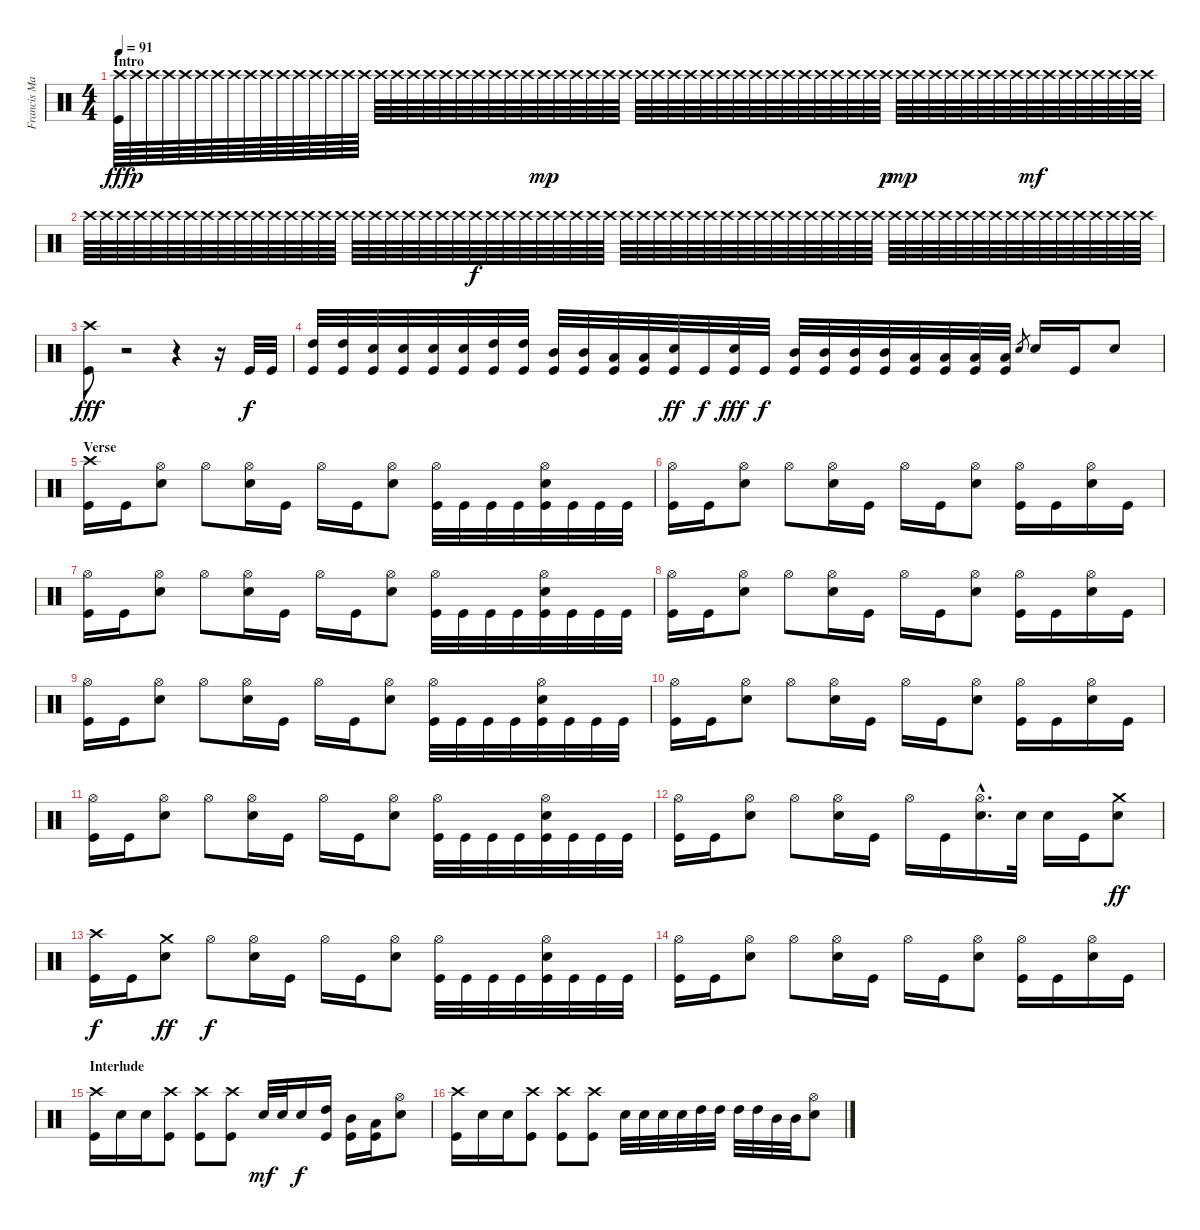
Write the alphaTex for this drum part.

\track ("Francis Mark" "Francis Ma") {instrument percussion}
\staff {score}
\articulation defaults
\ts (4 4)
\section ("" "Intro")
\tempo 91
\clef neutral
\ks c
("Crash high (hit)" "Kick (hit)").64{dy fff} "Crash high (hit)".64{dy p} "Crash high (hit)".64 "Crash high (hit)".64 "Crash high (hit)".64 "Crash high (hit)".64 "Crash high (hit)".64 "Crash high (hit)".64 "Crash high (hit)".64 "Crash high (hit)".64 "Crash high (hit)".64 "Crash high (hit)".64 "Crash high (hit)".64 "Crash high (hit)".64 "Crash high (hit)".64 "Crash high (hit)".64 "Crash high (hit)".64 "Crash high (hit)".64 "Crash high (hit)".64 "Crash high (hit)".64 "Crash high (hit)".64 "Crash high (hit)".64 "Crash high (hit)".64 "Crash high (hit)".64 "Crash high (hit)".64 "Crash high (hit)".64 "Crash high (hit)".64{dy mp} "Crash high (hit)".64 "Crash high (hit)".64 "Crash high (hit)".64 "Crash high (hit)".64 "Crash high (hit)".64 "Crash high (hit)".64 "Crash high (hit)".64 "Crash high (hit)".64 "Crash high (hit)".64 "Crash high (hit)".64 "Crash high (hit)".64 "Crash high (hit)".64 "Crash high (hit)".64 "Crash high (hit)".64 "Crash high (hit)".64 "Crash high (hit)".64 "Crash high (hit)".64 "Crash high (hit)".64 "Crash high (hit)".64 "Crash high (hit)".64 "Crash high (hit)".64{dy p} "Crash high (hit)".64{dy mp} "Crash high (hit)".64 "Crash high (hit)".64 "Crash high (hit)".64 "Crash high (hit)".64 "Crash high (hit)".64 "Crash high (hit)".64 "Crash high (hit)".64 "Crash high (hit)".64{dy mf} "Crash high (hit)".64 "Crash high (hit)".64 "Crash high (hit)".64 "Crash high (hit)".64 "Crash high (hit)".64 "Crash high (hit)".64 "Crash high (hit)".64 |
"Crash high (hit)".64 "Crash high (hit)".64 "Crash high (hit)".64 "Crash high (hit)".64 "Crash high (hit)".64 "Crash high (hit)".64 "Crash high (hit)".64 "Crash high (hit)".64 "Crash high (hit)".64 "Crash high (hit)".64 "Crash high (hit)".64 "Crash high (hit)".64 "Crash high (hit)".64 "Crash high (hit)".64 "Crash high (hit)".64 "Crash high (hit)".64 "Crash high (hit)".64 "Crash high (hit)".64 "Crash high (hit)".64 "Crash high (hit)".64 "Crash high (hit)".64 "Crash high (hit)".64 "Crash high (hit)".64 "Crash high (hit)".64{dy f} "Crash high (hit)".64 "Crash high (hit)".64 "Crash high (hit)".64 "Crash high (hit)".64 "Crash high (hit)".64 "Crash high (hit)".64 "Crash high (hit)".64 "Crash high (hit)".64 "Crash high (hit)".64 "Crash high (hit)".64 "Crash high (hit)".64 "Crash high (hit)".64 "Crash high (hit)".64 "Crash high (hit)".64 "Crash high (hit)".64 "Crash high (hit)".64 "Crash high (hit)".64 "Crash high (hit)".64 "Crash high (hit)".64 "Crash high (hit)".64 "Crash high (hit)".64 "Crash high (hit)".64 "Crash high (hit)".64 "Crash high (hit)".64 "Crash high (hit)".64 "Crash high (hit)".64 "Crash high (hit)".64 "Crash high (hit)".64 "Crash high (hit)".64 "Crash high (hit)".64 "Crash high (hit)".64 "Crash high (hit)".64 "Crash high (hit)".64 "Crash high (hit)".64 "Crash high (hit)".64 "Crash high (hit)".64 "Crash high (hit)".64 "Crash high (hit)".64 "Crash high (hit)".64 "Crash high (hit)".64 |
("Crash high (hit)" "Kick (hit)").8{dy fff} r.2{volume 0} r.4{volume 13} r.16 "Kick (hit)".32{dy f} "Kick (hit)".32 |
("High Tom (hit)" "Kick (hit)").32 ("High Tom (hit)" "Kick (hit)").32 ("Electric Snare (hit)" "Kick (hit)").32 ("Electric Snare (hit)" "Kick (hit)").32 ("Electric Snare (hit)" "Kick (hit)").32 ("Electric Snare (hit)" "Kick (hit)").32 ("High Tom (hit)" "Kick (hit)").32 ("High Tom (hit)" "Kick (hit)").32 ("Mid Tom (hit)" "Kick (hit)").32 ("Mid Tom (hit)" "Kick (hit)").32 ("Low Tom (hit)" "Kick (hit)").32 ("Low Tom (hit)" "Kick (hit)").32 ("Electric Snare (hit)" "Kick (hit)").32{dy ff} "Kick (hit)".32{dy f} ("Electric Snare (hit)" "Kick (hit)").32{dy fff} "Kick (hit)".32{dy f} ("Mid Tom (hit)" "Kick (hit)").32 ("Mid Tom (hit)" "Kick (hit)").32 ("Mid Tom (hit)" "Kick (hit)").32 ("Mid Tom (hit)" "Kick (hit)").32 ("Low Tom (hit)" "Kick (hit)").32 ("Low Tom (hit)" "Kick (hit)").32 ("Low Tom (hit)" "Kick (hit)").32 ("Low Tom (hit)" "Kick (hit)").32 "Electric Snare (hit)".8{gr} "Electric Snare (hit)".16 "Kick (hit)".16 "Electric Snare (hit)".8 |
\section ("" "Verse")
("Crash high (hit)" "Kick (hit)").16 "Kick (hit)".16 ("Hi-Hat (open)" "Electric Snare (hit)").8 "Hi-Hat (open)".8 ("Hi-Hat (open)" "Electric Snare (hit)").16 "Kick (hit)".16 "Hi-Hat (open)".16 "Kick (hit)".16 ("Hi-Hat (open)" "Electric Snare (hit)").8 ("Hi-Hat (open)" "Kick (hit)").32 "Kick (hit)".32 "Kick (hit)".32 "Kick (hit)".32 ("Hi-Hat (open)" "Electric Snare (hit)" "Kick (hit)").32 "Kick (hit)".32 "Kick (hit)".32 "Kick (hit)".32 |
("Hi-Hat (open)" "Kick (hit)").16 "Kick (hit)".16 ("Hi-Hat (open)" "Electric Snare (hit)").8 "Hi-Hat (open)".8 ("Hi-Hat (open)" "Electric Snare (hit)").16 "Kick (hit)".16 "Hi-Hat (open)".16 "Kick (hit)".16 ("Hi-Hat (open)" "Electric Snare (hit)").8 ("Hi-Hat (open)" "Kick (hit)").16 "Kick (hit)".16 ("Hi-Hat (open)" "Electric Snare (hit)").16 "Kick (hit)".16 |
("Hi-Hat (open)" "Kick (hit)").16 "Kick (hit)".16 ("Hi-Hat (open)" "Electric Snare (hit)").8 "Hi-Hat (open)".8 ("Hi-Hat (open)" "Electric Snare (hit)").16 "Kick (hit)".16 "Hi-Hat (open)".16 "Kick (hit)".16 ("Hi-Hat (open)" "Electric Snare (hit)").8 ("Hi-Hat (open)" "Kick (hit)").32 "Kick (hit)".32 "Kick (hit)".32 "Kick (hit)".32 ("Hi-Hat (open)" "Electric Snare (hit)" "Kick (hit)").32 "Kick (hit)".32 "Kick (hit)".32 "Kick (hit)".32 |
("Hi-Hat (open)" "Kick (hit)").16 "Kick (hit)".16 ("Hi-Hat (open)" "Electric Snare (hit)").8 "Hi-Hat (open)".8 ("Hi-Hat (open)" "Electric Snare (hit)").16 "Kick (hit)".16 "Hi-Hat (open)".16 "Kick (hit)".16 ("Hi-Hat (open)" "Electric Snare (hit)").8 ("Hi-Hat (open)" "Kick (hit)").16 "Kick (hit)".16 ("Hi-Hat (open)" "Electric Snare (hit)").16 "Kick (hit)".16 |
("Hi-Hat (open)" "Kick (hit)").16 "Kick (hit)".16 ("Hi-Hat (open)" "Electric Snare (hit)").8 "Hi-Hat (open)".8 ("Hi-Hat (open)" "Electric Snare (hit)").16 "Kick (hit)".16 "Hi-Hat (open)".16 "Kick (hit)".16 ("Hi-Hat (open)" "Electric Snare (hit)").8 ("Hi-Hat (open)" "Kick (hit)").32 "Kick (hit)".32 "Kick (hit)".32 "Kick (hit)".32 ("Hi-Hat (open)" "Electric Snare (hit)" "Kick (hit)").32 "Kick (hit)".32 "Kick (hit)".32 "Kick (hit)".32 |
("Hi-Hat (open)" "Kick (hit)").16 "Kick (hit)".16 ("Hi-Hat (open)" "Electric Snare (hit)").8 "Hi-Hat (open)".8 ("Hi-Hat (open)" "Electric Snare (hit)").16 "Kick (hit)".16 "Hi-Hat (open)".16 "Kick (hit)".16 ("Hi-Hat (open)" "Electric Snare (hit)").8 ("Hi-Hat (open)" "Kick (hit)").16 "Kick (hit)".16 ("Hi-Hat (open)" "Electric Snare (hit)").16 "Kick (hit)".16 |
("Hi-Hat (open)" "Kick (hit)").16 "Kick (hit)".16 ("Hi-Hat (open)" "Electric Snare (hit)").8 "Hi-Hat (open)".8 ("Hi-Hat (open)" "Electric Snare (hit)").16 "Kick (hit)".16 "Hi-Hat (open)".16 "Kick (hit)".16 ("Hi-Hat (open)" "Electric Snare (hit)").8 ("Hi-Hat (open)" "Kick (hit)").32 "Kick (hit)".32 "Kick (hit)".32 "Kick (hit)".32 ("Hi-Hat (open)" "Electric Snare (hit)" "Kick (hit)").32 "Kick (hit)".32 "Kick (hit)".32 "Kick (hit)".32 |
("Hi-Hat (open)" "Kick (hit)").16 "Kick (hit)".16 ("Hi-Hat (open)" "Electric Snare (hit)").8 "Hi-Hat (open)".8 ("Hi-Hat (open)" "Electric Snare (hit)").16 "Kick (hit)".16 "Hi-Hat (open)".16 "Kick (hit)".16 ("Hi-Hat (open)"{hac} "Electric Snare (hit)"{hac}).16{d} "Electric Snare (hit)".32 "Electric Snare (hit)".16 "Kick (hit)".16 ("Crash medium (hit)" "Electric Snare (hit)").8{dy ff} |
("Crash high (hit)" "Kick (hit)").16{dy f} "Kick (hit)".16 ("Crash medium (hit)" "Electric Snare (hit)").8{dy ff} "Hi-Hat (open)".8{dy f} ("Hi-Hat (open)" "Electric Snare (hit)").16 "Kick (hit)".16 "Hi-Hat (open)".16 "Kick (hit)".16 ("Hi-Hat (open)" "Electric Snare (hit)").8 ("Hi-Hat (open)" "Kick (hit)").32 "Kick (hit)".32 "Kick (hit)".32 "Kick (hit)".32 ("Hi-Hat (open)" "Electric Snare (hit)" "Kick (hit)").32 "Kick (hit)".32 "Kick (hit)".32 "Kick (hit)".32 |
("Hi-Hat (open)" "Kick (hit)").16 "Kick (hit)".16 ("Hi-Hat (open)" "Electric Snare (hit)").8 "Hi-Hat (open)".8 ("Hi-Hat (open)" "Electric Snare (hit)").16 "Kick (hit)".16 "Hi-Hat (open)".16 "Kick (hit)".16 ("Hi-Hat (open)" "Electric Snare (hit)").8 ("Hi-Hat (open)" "Kick (hit)").16 "Kick (hit)".16 ("Hi-Hat (open)" "Electric Snare (hit)").16 "Kick (hit)".16 |
\section ("" "Interlude")
("Crash high (hit)" "Kick (hit)").16 "Electric Snare (hit)".16 "Electric Snare (hit)".16 ("Crash high (hit)" "Kick (hit)").8 ("Crash high (hit)" "Kick (hit)").8 ("Crash high (hit)" "Kick (hit)").8 "Electric Snare (hit)".32{dy mf} "Electric Snare (hit)".32 "Electric Snare (hit)".16{dy f} ("High Tom (hit)" "Kick (hit)").16 ("Mid Tom (hit)" "Kick (hit)").16 ("Low Tom (hit)" "Kick (hit)").16 ("Hi-Hat (open)" "Electric Snare (hit)").8 |
("Crash high (hit)" "Kick (hit)").16 "Electric Snare (hit)".16 "Electric Snare (hit)".16 ("Crash high (hit)" "Kick (hit)").8 ("Crash high (hit)" "Kick (hit)").8 ("Crash high (hit)" "Kick (hit)").8 "Electric Snare (hit)".32 "Electric Snare (hit)".32 "Electric Snare (hit)".32 "Electric Snare (hit)".32 "High Tom (hit)".32 "High Tom (hit)".32 "High Tom (hit)".32 "High Tom (hit)".32 "Mid Tom (hit)".32 "Mid Tom (hit)".32 ("Hi-Hat (open)" "Electric Snare (hit)").8
